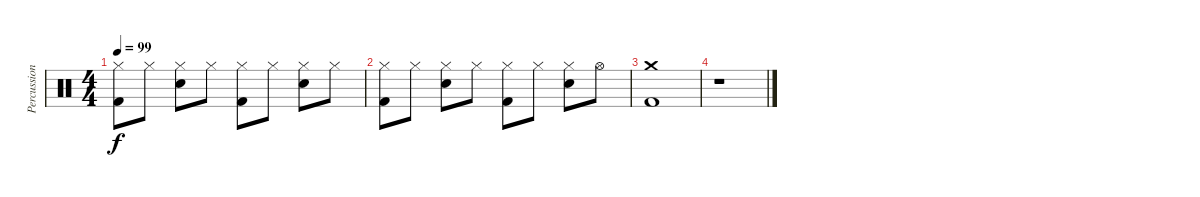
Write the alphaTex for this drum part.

\track ("Percussions" "Percussion") {instrument percussion}
\staff {score}
\articulation defaults
\ts (4 4)
\tempo 99
\clef neutral
\ks c
("Hi-Hat (closed)" "Kick (hit) 2").8{dy f} "Hi-Hat (closed)".8 ("Hi-Hat (closed)" "Electric Snare (hit)").8 "Hi-Hat (closed)".8 ("Hi-Hat (closed)" "Kick (hit) 2").8 "Hi-Hat (closed)".8 ("Hi-Hat (closed)" "Electric Snare (hit)").8 "Hi-Hat (closed)".8 |
("Hi-Hat (closed)" "Kick (hit) 2").8 "Hi-Hat (closed)".8 ("Hi-Hat (closed)" "Electric Snare (hit)").8 "Hi-Hat (closed)".8 ("Hi-Hat (closed)" "Kick (hit) 2").8 "Hi-Hat (closed)".8 ("Hi-Hat (closed)" "Electric Snare (hit)").8 "Hi-Hat (open)".8 |
("Crash medium (hit)" "Kick (hit) 2").1 |
r.1
